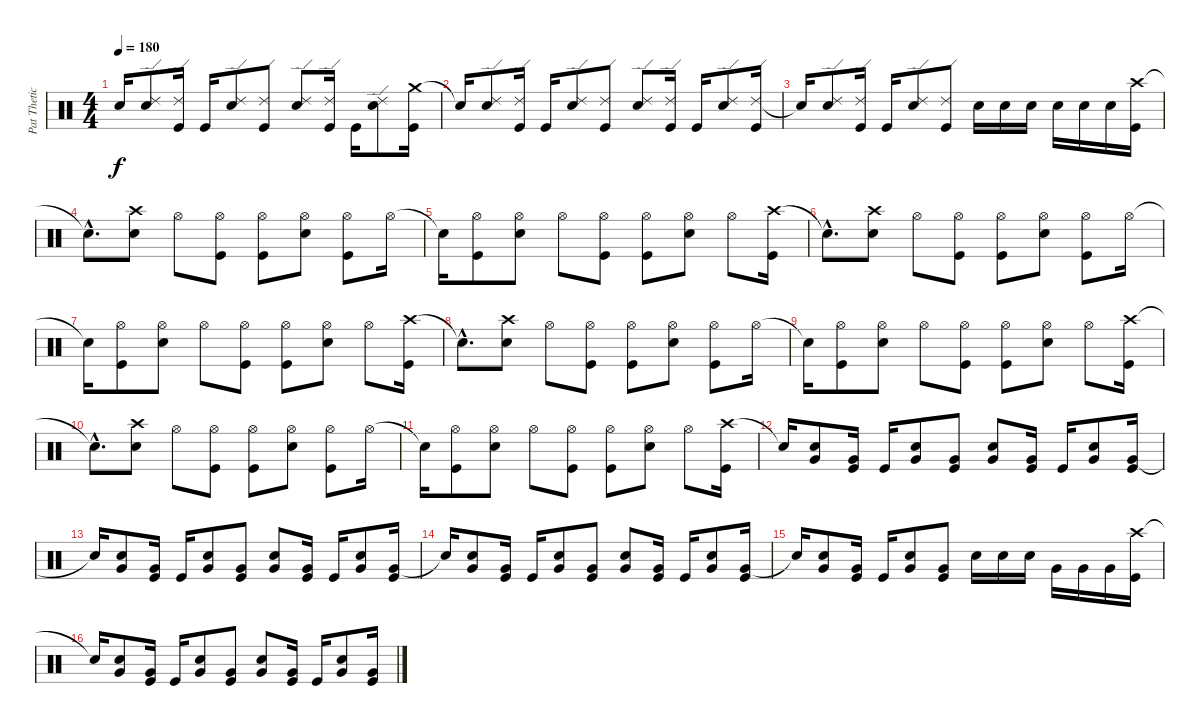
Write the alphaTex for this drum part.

\track ("Pat Thetic" "Pat Thetic") {instrument percussion}
\staff {score}
\articulation defaults
\ts (4 4)
\tempo 180
\clef neutral
\ks c "Snare (hit)"{t}.16{dy f}
("Ride (edge) 2" "Electric Snare (hit)").8 ("Ride (edge) 2" "Kick (hit)").16 "Kick (hit)".16 ("Ride (edge) 2" "Electric Snare (hit)").8 ("Ride (edge) 2" "Kick (hit)").8 ("Ride (edge) 2" "Electric Snare (hit)").8 ("Ride (edge) 2" "Kick (hit)").16 "Kick (hit)".16 ("Ride (edge) 2" "Electric Snare (hit)").8 ("Crash medium (hit)" "Kick (hit)").16 |
"Snare (hit)"{t}.16 ("Ride (edge) 2" "Electric Snare (hit)").8 ("Ride (edge) 2" "Kick (hit)").16 "Kick (hit)".16 ("Ride (edge) 2" "Electric Snare (hit)").8 ("Ride (edge) 2" "Kick (hit)").8 ("Ride (edge) 2" "Electric Snare (hit)").8 ("Ride (edge) 2" "Kick (hit)").16 "Kick (hit)".16 ("Ride (edge) 2" "Electric Snare (hit)").8 ("Ride (edge) 2" "Kick (hit)").16 |
"Snare (hit)"{t}.16 ("Ride (edge) 2" "Electric Snare (hit)").8 ("Ride (edge) 2" "Kick (hit)").16 "Kick (hit)".16 ("Ride (edge) 2" "Electric Snare (hit)").8 ("Ride (edge) 2" "Kick (hit)").8 "Electric Snare (hit)".16 "Electric Snare (hit)".16 "Electric Snare (hit)".16 "Electric Snare (hit)".16 "Electric Snare (hit)".16 "Electric Snare (hit)".16 ("Crash high (hit)" "Kick (hit)").16 |
"Snare (hit)"{hac t}.8{d} ("Crash high (hit)" "Electric Snare (hit)").8 "Hi-Hat (open)".8 ("Hi-Hat (open)" "Kick (hit)").8 ("Hi-Hat (open)" "Kick (hit)").8 ("Hi-Hat (open)" "Electric Snare (hit)").8 ("Hi-Hat (open)" "Kick (hit)").8 "Hi-Hat (open)".16 |
"Snare (hit)"{t}.16 ("Hi-Hat (open)" "Kick (hit)").8 ("Hi-Hat (open)" "Electric Snare (hit)").8 "Hi-Hat (open)".8 ("Hi-Hat (open)" "Kick (hit)").8 ("Hi-Hat (open)" "Kick (hit)").8 ("Hi-Hat (open)" "Electric Snare (hit)").8 "Hi-Hat (open)".8 ("Crash high (hit)" "Kick (hit)").16 |
"Snare (hit)"{hac t}.8{d} ("Crash high (hit)" "Electric Snare (hit)").8 "Hi-Hat (open)".8 ("Hi-Hat (open)" "Kick (hit)").8 ("Hi-Hat (open)" "Kick (hit)").8 ("Hi-Hat (open)" "Electric Snare (hit)").8 ("Hi-Hat (open)" "Kick (hit)").8 "Hi-Hat (open)".16 |
"Snare (hit)"{t}.16 ("Hi-Hat (open)" "Kick (hit)").8 ("Hi-Hat (open)" "Electric Snare (hit)").8 "Hi-Hat (open)".8 ("Hi-Hat (open)" "Kick (hit)").8 ("Hi-Hat (open)" "Kick (hit)").8 ("Hi-Hat (open)" "Electric Snare (hit)").8 "Hi-Hat (open)".8 ("Crash high (hit)" "Kick (hit)").16 |
"Snare (hit)"{hac t}.8{d} ("Crash high (hit)" "Electric Snare (hit)").8 "Hi-Hat (open)".8 ("Hi-Hat (open)" "Kick (hit)").8 ("Hi-Hat (open)" "Kick (hit)").8 ("Hi-Hat (open)" "Electric Snare (hit)").8 ("Hi-Hat (open)" "Kick (hit)").8 "Hi-Hat (open)".16 |
"Snare (hit)"{t}.16 ("Hi-Hat (open)" "Kick (hit)").8 ("Hi-Hat (open)" "Electric Snare (hit)").8 "Hi-Hat (open)".8 ("Hi-Hat (open)" "Kick (hit)").8 ("Hi-Hat (open)" "Kick (hit)").8 ("Hi-Hat (open)" "Electric Snare (hit)").8 "Hi-Hat (open)".8 ("Crash high (hit)" "Kick (hit)").16 |
"Snare (hit)"{hac t}.8{d} ("Crash high (hit)" "Electric Snare (hit)").8 "Hi-Hat (open)".8 ("Hi-Hat (open)" "Kick (hit)").8 ("Hi-Hat (open)" "Kick (hit)").8 ("Hi-Hat (open)" "Electric Snare (hit)").8 ("Hi-Hat (open)" "Kick (hit)").8 "Hi-Hat (open)".16 |
"Snare (hit)"{t}.16 ("Hi-Hat (open)" "Kick (hit)").8 ("Hi-Hat (open)" "Electric Snare (hit)").8 "Hi-Hat (open)".8 ("Hi-Hat (open)" "Kick (hit)").8 ("Hi-Hat (open)" "Kick (hit)").8 ("Hi-Hat (open)" "Electric Snare (hit)").8 "Hi-Hat (open)".8 ("Crash high (hit)" "Kick (hit)").16 |
"Snare (hit)"{t}.16 ("Very Low Tom (hit)" "Electric Snare (hit)").8 ("Very Low Tom (hit)" "Kick (hit)").16 "Kick (hit)".16 ("Very Low Tom (hit)" "Electric Snare (hit)").8 ("Very Low Tom (hit)" "Kick (hit)").8 ("Very Low Tom (hit)" "Electric Snare (hit)").8 ("Very Low Tom (hit)" "Kick (hit)").16 "Kick (hit)".16 ("Very Low Tom (hit)" "Electric Snare (hit)").8 ("Very Low Tom (hit)" "Kick (hit)").16 |
"Snare (hit)"{t}.16 ("Very Low Tom (hit)" "Electric Snare (hit)").8 ("Very Low Tom (hit)" "Kick (hit)").16 "Kick (hit)".16 ("Very Low Tom (hit)" "Electric Snare (hit)").8 ("Very Low Tom (hit)" "Kick (hit)").8 ("Very Low Tom (hit)" "Electric Snare (hit)").8 ("Very Low Tom (hit)" "Kick (hit)").16 "Kick (hit)".16 ("Very Low Tom (hit)" "Electric Snare (hit)").8 ("Very Low Tom (hit)" "Kick (hit)").16 |
"Snare (hit)"{t}.16 ("Very Low Tom (hit)" "Electric Snare (hit)").8 ("Very Low Tom (hit)" "Kick (hit)").16 "Kick (hit)".16 ("Very Low Tom (hit)" "Electric Snare (hit)").8 ("Very Low Tom (hit)" "Kick (hit)").8 ("Very Low Tom (hit)" "Electric Snare (hit)").8 ("Very Low Tom (hit)" "Kick (hit)").16 "Kick (hit)".16 ("Very Low Tom (hit)" "Electric Snare (hit)").8 ("Very Low Tom (hit)" "Kick (hit)").16 |
"Snare (hit)"{t}.16 ("Very Low Tom (hit)" "Electric Snare (hit)").8 ("Very Low Tom (hit)" "Kick (hit)").16 "Kick (hit)".16 ("Very Low Tom (hit)" "Electric Snare (hit)").8 ("Very Low Tom (hit)" "Kick (hit)").8 "Electric Snare (hit)".16 "Electric Snare (hit)".16 "Electric Snare (hit)".16 "Very Low Tom (hit)".16 "Very Low Tom (hit)".16 "Very Low Tom (hit)".16 ("Crash high (hit)" "Kick (hit)").16 |
"Snare (hit)"{t}.16 ("Very Low Tom (hit)" "Electric Snare (hit)").8 ("Very Low Tom (hit)" "Kick (hit)").16 "Kick (hit)".16 ("Very Low Tom (hit)" "Electric Snare (hit)").8 ("Very Low Tom (hit)" "Kick (hit)").8 ("Very Low Tom (hit)" "Electric Snare (hit)").8 ("Very Low Tom (hit)" "Kick (hit)").16 "Kick (hit)".16 ("Very Low Tom (hit)" "Electric Snare (hit)").8 ("Very Low Tom (hit)" "Kick (hit)").16
